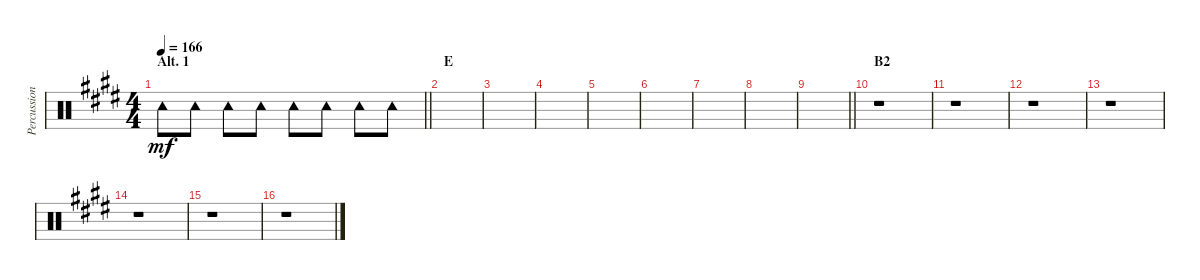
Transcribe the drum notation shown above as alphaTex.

\track ("Percussion" "Percussion") {instrument percussion}
\staff {score}
\articulation defaults
\ts (4 4)
\section ("" "Alt. 1")
\tempo 166
\clef neutral
\barLineRight lightlight
\ks e "Tambourine (hit)".8{dy mf} "Tambourine (hit)".8 "Tambourine (hit)".8 "Tambourine (hit)".8 "Tambourine (hit)".8 "Tambourine (hit)".8 "Tambourine (hit)".8 "Tambourine (hit)".8
|
\section ("" "E")
|
|
|
|
|
|
|
\barLineRight lightlight
|
\section ("" "B2")
r.1 |
r.1 |
r.1 |
r.1 |
r.1 |
r.1 |
r.1
